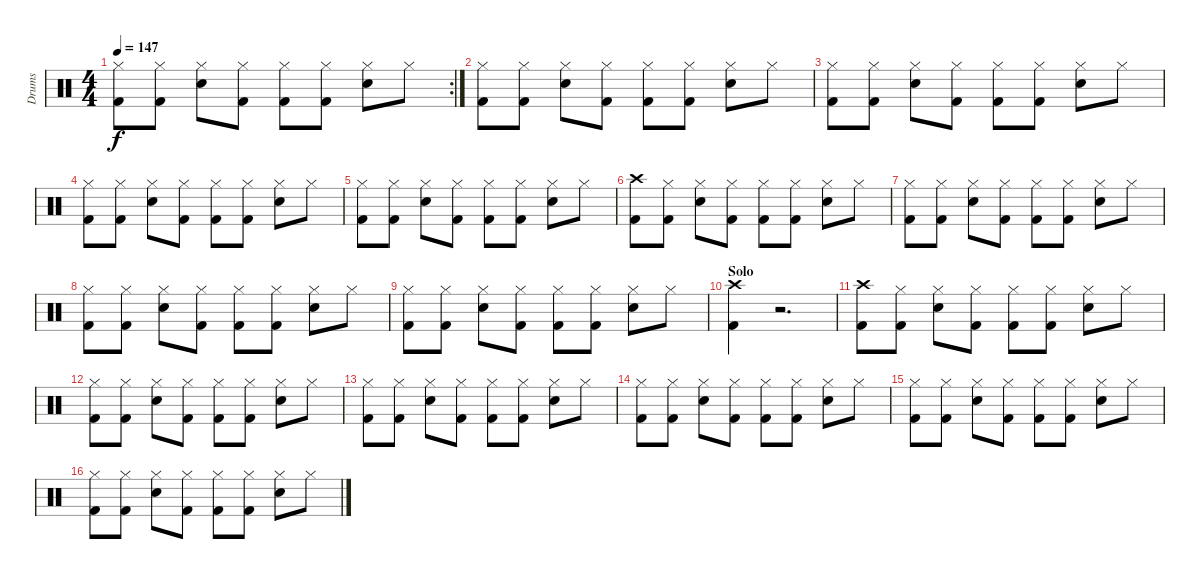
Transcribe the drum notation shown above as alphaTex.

\track ("Drums" "Drums") {instrument percussion}
\staff {score}
\articulation defaults
\rc 2
\ts (4 4)
\tempo 147
\clef neutral
\ks c
("Hi-Hat (closed)" "Kick (hit) 2").8{dy f} ("Hi-Hat (closed)" "Kick (hit) 2").8 ("Hi-Hat (closed)" "Snare (hit) 2").8 ("Hi-Hat (closed)" "Kick (hit) 2").8 ("Hi-Hat (closed)" "Kick (hit) 2").8 ("Hi-Hat (closed)" "Kick (hit) 2").8 ("Hi-Hat (closed)" "Snare (hit) 2").8 "Hi-Hat (closed)".8 |
("Hi-Hat (closed)" "Kick (hit) 2").8 ("Hi-Hat (closed)" "Kick (hit) 2").8 ("Hi-Hat (closed)" "Snare (hit) 2").8 ("Hi-Hat (closed)" "Kick (hit) 2").8 ("Hi-Hat (closed)" "Kick (hit) 2").8 ("Hi-Hat (closed)" "Kick (hit) 2").8 ("Hi-Hat (closed)" "Snare (hit) 2").8 "Hi-Hat (closed)".8 |
("Hi-Hat (closed)" "Kick (hit) 2").8 ("Hi-Hat (closed)" "Kick (hit) 2").8 ("Hi-Hat (closed)" "Snare (hit) 2").8 ("Hi-Hat (closed)" "Kick (hit) 2").8 ("Hi-Hat (closed)" "Kick (hit) 2").8 ("Hi-Hat (closed)" "Kick (hit) 2").8 ("Hi-Hat (closed)" "Snare (hit) 2").8 "Hi-Hat (closed)".8 |
("Hi-Hat (closed)" "Kick (hit) 2").8 ("Hi-Hat (closed)" "Kick (hit) 2").8 ("Hi-Hat (closed)" "Snare (hit) 2").8 ("Hi-Hat (closed)" "Kick (hit) 2").8 ("Hi-Hat (closed)" "Kick (hit) 2").8 ("Hi-Hat (closed)" "Kick (hit) 2").8 ("Hi-Hat (closed)" "Snare (hit) 2").8 "Hi-Hat (closed)".8 |
("Hi-Hat (closed)" "Kick (hit) 2").8 ("Hi-Hat (closed)" "Kick (hit) 2").8 ("Hi-Hat (closed)" "Snare (hit) 2").8 ("Hi-Hat (closed)" "Kick (hit) 2").8 ("Hi-Hat (closed)" "Kick (hit) 2").8 ("Hi-Hat (closed)" "Kick (hit) 2").8 ("Hi-Hat (closed)" "Snare (hit) 2").8 "Hi-Hat (closed)".8 |
("Crash high (hit)" "Kick (hit) 2").8 ("Hi-Hat (closed)" "Kick (hit) 2").8 ("Hi-Hat (closed)" "Snare (hit) 2").8 ("Hi-Hat (closed)" "Kick (hit) 2").8 ("Hi-Hat (closed)" "Kick (hit) 2").8 ("Hi-Hat (closed)" "Kick (hit) 2").8 ("Hi-Hat (closed)" "Snare (hit) 2").8 "Hi-Hat (closed)".8 |
("Hi-Hat (closed)" "Kick (hit) 2").8 ("Hi-Hat (closed)" "Kick (hit) 2").8 ("Hi-Hat (closed)" "Snare (hit) 2").8 ("Hi-Hat (closed)" "Kick (hit) 2").8 ("Hi-Hat (closed)" "Kick (hit) 2").8 ("Hi-Hat (closed)" "Kick (hit) 2").8 ("Hi-Hat (closed)" "Snare (hit) 2").8 "Hi-Hat (closed)".8 |
("Hi-Hat (closed)" "Kick (hit) 2").8 ("Hi-Hat (closed)" "Kick (hit) 2").8 ("Hi-Hat (closed)" "Snare (hit) 2").8 ("Hi-Hat (closed)" "Kick (hit) 2").8 ("Hi-Hat (closed)" "Kick (hit) 2").8 ("Hi-Hat (closed)" "Kick (hit) 2").8 ("Hi-Hat (closed)" "Snare (hit) 2").8 "Hi-Hat (closed)".8 |
("Hi-Hat (closed)" "Kick (hit) 2").8 ("Hi-Hat (closed)" "Kick (hit) 2").8 ("Hi-Hat (closed)" "Snare (hit) 2").8 ("Hi-Hat (closed)" "Kick (hit) 2").8 ("Hi-Hat (closed)" "Kick (hit) 2").8 ("Hi-Hat (closed)" "Kick (hit) 2").8 ("Hi-Hat (closed)" "Snare (hit) 2").8 "Hi-Hat (closed)".8 |
\section ("" "Solo")
("Crash high (hit)" "Kick (hit) 2").4 r.2{d} |
("Crash high (hit)" "Kick (hit) 2").8 ("Hi-Hat (closed)" "Kick (hit) 2").8 ("Hi-Hat (closed)" "Snare (hit) 2").8 ("Hi-Hat (closed)" "Kick (hit) 2").8 ("Hi-Hat (closed)" "Kick (hit) 2").8 ("Hi-Hat (closed)" "Kick (hit) 2").8 ("Hi-Hat (closed)" "Snare (hit) 2").8 "Hi-Hat (closed)".8 |
("Hi-Hat (closed)" "Kick (hit) 2").8 ("Hi-Hat (closed)" "Kick (hit) 2").8 ("Hi-Hat (closed)" "Snare (hit) 2").8 ("Hi-Hat (closed)" "Kick (hit) 2").8 ("Hi-Hat (closed)" "Kick (hit) 2").8 ("Hi-Hat (closed)" "Kick (hit) 2").8 ("Hi-Hat (closed)" "Snare (hit) 2").8 "Hi-Hat (closed)".8 |
("Hi-Hat (closed)" "Kick (hit) 2").8 ("Hi-Hat (closed)" "Kick (hit) 2").8 ("Hi-Hat (closed)" "Snare (hit) 2").8 ("Hi-Hat (closed)" "Kick (hit) 2").8 ("Hi-Hat (closed)" "Kick (hit) 2").8 ("Hi-Hat (closed)" "Kick (hit) 2").8 ("Hi-Hat (closed)" "Snare (hit) 2").8 "Hi-Hat (closed)".8 |
("Hi-Hat (closed)" "Kick (hit) 2").8 ("Hi-Hat (closed)" "Kick (hit) 2").8 ("Hi-Hat (closed)" "Snare (hit) 2").8 ("Hi-Hat (closed)" "Kick (hit) 2").8 ("Hi-Hat (closed)" "Kick (hit) 2").8 ("Hi-Hat (closed)" "Kick (hit) 2").8 ("Hi-Hat (closed)" "Snare (hit) 2").8 "Hi-Hat (closed)".8 |
("Hi-Hat (closed)" "Kick (hit) 2").8 ("Hi-Hat (closed)" "Kick (hit) 2").8 ("Hi-Hat (closed)" "Snare (hit) 2").8 ("Hi-Hat (closed)" "Kick (hit) 2").8 ("Hi-Hat (closed)" "Kick (hit) 2").8 ("Hi-Hat (closed)" "Kick (hit) 2").8 ("Hi-Hat (closed)" "Snare (hit) 2").8 "Hi-Hat (closed)".8 |
("Hi-Hat (closed)" "Kick (hit) 2").8 ("Hi-Hat (closed)" "Kick (hit) 2").8 ("Hi-Hat (closed)" "Snare (hit) 2").8 ("Hi-Hat (closed)" "Kick (hit) 2").8 ("Hi-Hat (closed)" "Kick (hit) 2").8 ("Hi-Hat (closed)" "Kick (hit) 2").8 ("Hi-Hat (closed)" "Snare (hit) 2").8 "Hi-Hat (closed)".8
